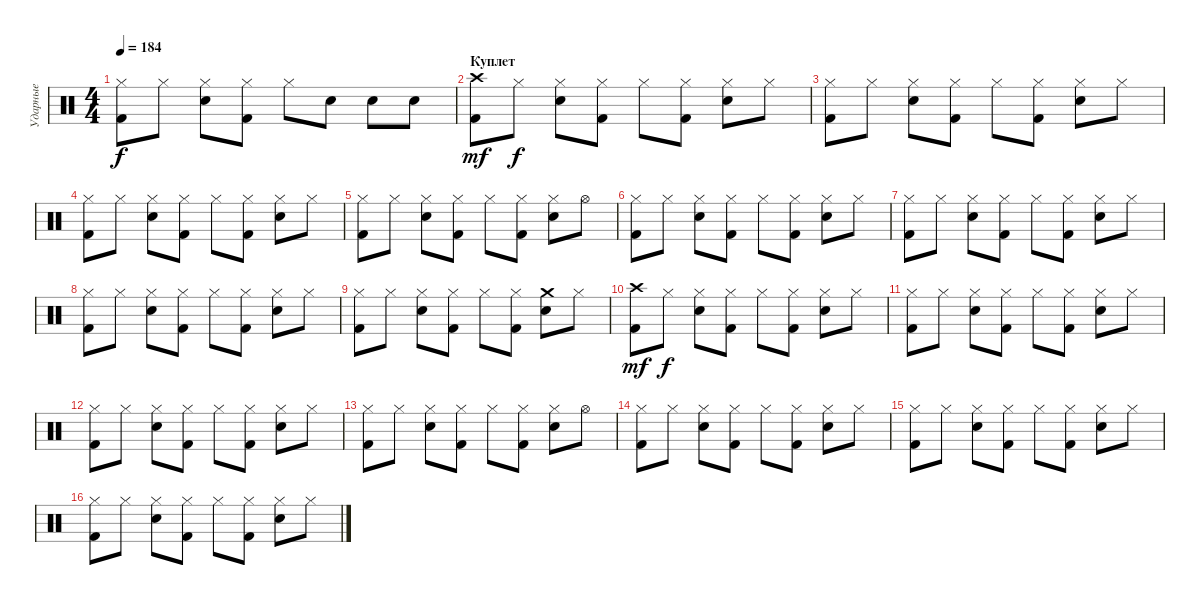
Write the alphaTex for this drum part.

\track ("Ударные" "Ударные") {instrument percussion}
\staff {score}
\articulation defaults
\ts (4 4)
\tempo 184
\clef neutral
\ks c
("Hi-Hat (closed)" "Kick (hit) 2").8{dy f} "Hi-Hat (closed)".8 ("Hi-Hat (closed)" "Snare (hit) 2").8 ("Hi-Hat (closed)" "Kick (hit) 2").8 "Hi-Hat (closed)".8 "Snare (hit) 2".8 "Snare (hit) 2".8 "Snare (hit) 2".8 |
\section ("" "Куплет")
("Crash high (hit)" "Kick (hit) 2").8{dy mf} "Hi-Hat (closed)".8{dy f} ("Hi-Hat (closed)" "Snare (hit) 2").8 ("Hi-Hat (closed)" "Kick (hit) 2").8 "Hi-Hat (closed)".8 ("Hi-Hat (closed)" "Kick (hit) 2").8 ("Hi-Hat (closed)" "Snare (hit) 2").8 "Hi-Hat (closed)".8 |
("Hi-Hat (closed)" "Kick (hit) 2").8 "Hi-Hat (closed)".8 ("Hi-Hat (closed)" "Snare (hit) 2").8 ("Hi-Hat (closed)" "Kick (hit) 2").8 "Hi-Hat (closed)".8 ("Hi-Hat (closed)" "Kick (hit) 2").8 ("Hi-Hat (closed)" "Snare (hit) 2").8 "Hi-Hat (closed)".8 |
("Hi-Hat (closed)" "Kick (hit) 2").8 "Hi-Hat (closed)".8 ("Hi-Hat (closed)" "Snare (hit) 2").8 ("Hi-Hat (closed)" "Kick (hit) 2").8 "Hi-Hat (closed)".8 ("Hi-Hat (closed)" "Kick (hit) 2").8 ("Hi-Hat (closed)" "Snare (hit) 2").8 "Hi-Hat (closed)".8 |
("Hi-Hat (closed)" "Kick (hit) 2").8 "Hi-Hat (closed)".8 ("Hi-Hat (closed)" "Snare (hit) 2").8 ("Hi-Hat (closed)" "Kick (hit) 2").8 "Hi-Hat (closed)".8 ("Hi-Hat (closed)" "Kick (hit) 2").8 ("Hi-Hat (closed)" "Snare (hit) 2").8 "Hi-Hat (open)".8 |
("Hi-Hat (closed)" "Kick (hit) 2").8 "Hi-Hat (closed)".8 ("Hi-Hat (closed)" "Snare (hit) 2").8 ("Hi-Hat (closed)" "Kick (hit) 2").8 "Hi-Hat (closed)".8 ("Hi-Hat (closed)" "Kick (hit) 2").8 ("Hi-Hat (closed)" "Snare (hit) 2").8 "Hi-Hat (closed)".8 |
("Hi-Hat (closed)" "Kick (hit) 2").8 "Hi-Hat (closed)".8 ("Hi-Hat (closed)" "Snare (hit) 2").8 ("Hi-Hat (closed)" "Kick (hit) 2").8 "Hi-Hat (closed)".8 ("Hi-Hat (closed)" "Kick (hit) 2").8 ("Hi-Hat (closed)" "Snare (hit) 2").8 "Hi-Hat (closed)".8 |
("Hi-Hat (closed)" "Kick (hit) 2").8 "Hi-Hat (closed)".8 ("Hi-Hat (closed)" "Snare (hit) 2").8 ("Hi-Hat (closed)" "Kick (hit) 2").8 "Hi-Hat (closed)".8 ("Hi-Hat (closed)" "Kick (hit) 2").8 ("Hi-Hat (closed)" "Snare (hit) 2").8 "Hi-Hat (closed)".8 |
("Hi-Hat (closed)" "Kick (hit) 2").8 "Hi-Hat (closed)".8 ("Hi-Hat (closed)" "Snare (hit) 2").8 ("Hi-Hat (closed)" "Kick (hit) 2").8 "Hi-Hat (closed)".8 ("Hi-Hat (closed)" "Kick (hit) 2").8 ("Crash medium (hit)" "Snare (hit) 2").8 "Hi-Hat (closed)".8 |
("Crash high (hit)" "Kick (hit) 2").8{dy mf} "Hi-Hat (closed)".8{dy f} ("Hi-Hat (closed)" "Snare (hit) 2").8 ("Hi-Hat (closed)" "Kick (hit) 2").8 "Hi-Hat (closed)".8 ("Hi-Hat (closed)" "Kick (hit) 2").8 ("Hi-Hat (closed)" "Snare (hit) 2").8 "Hi-Hat (closed)".8 |
("Hi-Hat (closed)" "Kick (hit) 2").8 "Hi-Hat (closed)".8 ("Hi-Hat (closed)" "Snare (hit) 2").8 ("Hi-Hat (closed)" "Kick (hit) 2").8 "Hi-Hat (closed)".8 ("Hi-Hat (closed)" "Kick (hit) 2").8 ("Hi-Hat (closed)" "Snare (hit) 2").8 "Hi-Hat (closed)".8 |
("Hi-Hat (closed)" "Kick (hit) 2").8 "Hi-Hat (closed)".8 ("Hi-Hat (closed)" "Snare (hit) 2").8 ("Hi-Hat (closed)" "Kick (hit) 2").8 "Hi-Hat (closed)".8 ("Hi-Hat (closed)" "Kick (hit) 2").8 ("Hi-Hat (closed)" "Snare (hit) 2").8 "Hi-Hat (closed)".8 |
("Hi-Hat (closed)" "Kick (hit) 2").8 "Hi-Hat (closed)".8 ("Hi-Hat (closed)" "Snare (hit) 2").8 ("Hi-Hat (closed)" "Kick (hit) 2").8 "Hi-Hat (closed)".8 ("Hi-Hat (closed)" "Kick (hit) 2").8 ("Hi-Hat (closed)" "Snare (hit) 2").8 "Hi-Hat (open)".8 |
("Hi-Hat (closed)" "Kick (hit) 2").8 "Hi-Hat (closed)".8 ("Hi-Hat (closed)" "Snare (hit) 2").8 ("Hi-Hat (closed)" "Kick (hit) 2").8 "Hi-Hat (closed)".8 ("Hi-Hat (closed)" "Kick (hit) 2").8 ("Hi-Hat (closed)" "Snare (hit) 2").8 "Hi-Hat (closed)".8 |
("Hi-Hat (closed)" "Kick (hit) 2").8 "Hi-Hat (closed)".8 ("Hi-Hat (closed)" "Snare (hit) 2").8 ("Hi-Hat (closed)" "Kick (hit) 2").8 "Hi-Hat (closed)".8 ("Hi-Hat (closed)" "Kick (hit) 2").8 ("Hi-Hat (closed)" "Snare (hit) 2").8 "Hi-Hat (closed)".8 |
("Hi-Hat (closed)" "Kick (hit) 2").8 "Hi-Hat (closed)".8 ("Hi-Hat (closed)" "Snare (hit) 2").8 ("Hi-Hat (closed)" "Kick (hit) 2").8 "Hi-Hat (closed)".8 ("Hi-Hat (closed)" "Kick (hit) 2").8 ("Hi-Hat (closed)" "Snare (hit) 2").8 "Hi-Hat (closed)".8
